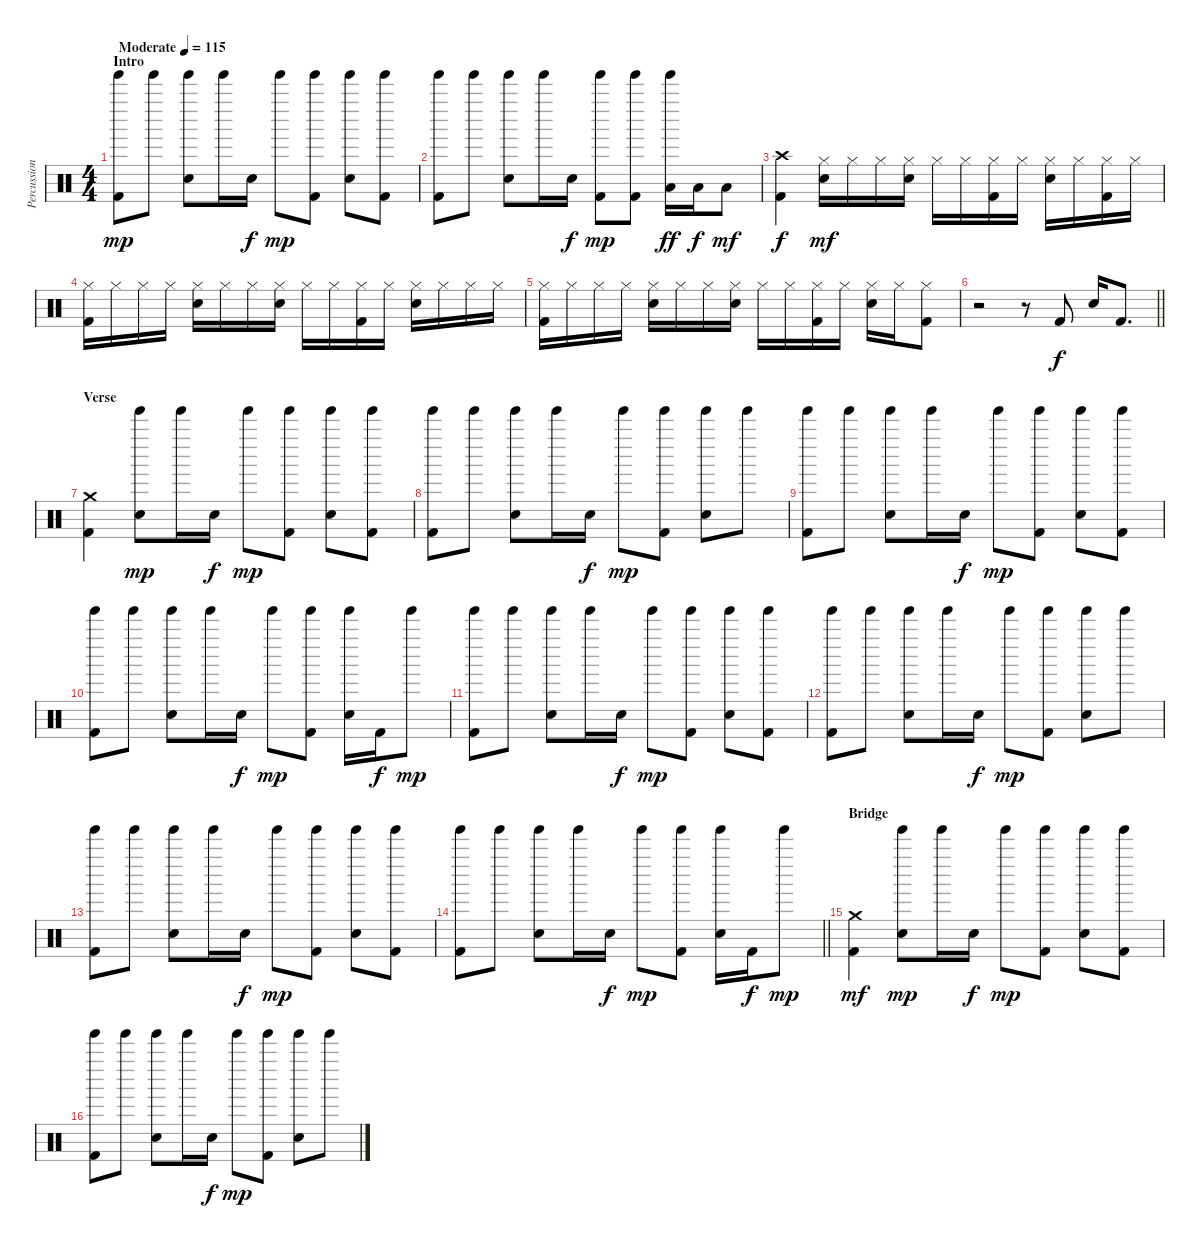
\track ("Percussion" "Percussion") {instrument percussion}
\staff {score}
\articulation defaults
\ts (4 4)
\section ("" "Intro")
\tempo (115 "Moderate")
\clef neutral
\ks c
("Tinkle Bell (hit)" "Kick (hit) 2").8{dy mp} "Tinkle Bell (hit)".8 ("Tinkle Bell (hit)" "Electric Snare (hit)").8 "Tinkle Bell (hit)".16 "Electric Snare (hit)".16{dy f} "Tinkle Bell (hit)".8{dy mp} ("Tinkle Bell (hit)" "Kick (hit) 2").8 ("Tinkle Bell (hit)" "Electric Snare (hit)").8 ("Tinkle Bell (hit)" "Kick (hit) 2").8 |
("Tinkle Bell (hit)" "Kick (hit) 2").8 "Tinkle Bell (hit)".8 ("Tinkle Bell (hit)" "Electric Snare (hit)").8 "Tinkle Bell (hit)".16 "Electric Snare (hit)".16{dy f} ("Tinkle Bell (hit)" "Kick (hit) 2").8{dy mp} ("Tinkle Bell (hit)" "Kick (hit) 2").8 ("Tinkle Bell (hit)" "Low Tom (hit)").16{dy ff} "Low Tom (hit)".16{dy f} "Low Tom (hit)".8{dy mf} |
("Crash high (hit)" "Kick (hit) 2").4{dy f} ("Hi-Hat (closed)" "Electric Snare (hit)").16{dy mf} "Hi-Hat (closed)".16 "Hi-Hat (closed)".16 ("Hi-Hat (closed)" "Electric Snare (hit)").16 "Hi-Hat (closed)".16 "Hi-Hat (closed)".16 ("Hi-Hat (closed)" "Kick (hit) 2").16 "Hi-Hat (closed)".16 ("Hi-Hat (closed)" "Electric Snare (hit)").16 "Hi-Hat (closed)".16 ("Hi-Hat (closed)" "Kick (hit) 2").16 "Hi-Hat (closed)".16 |
("Hi-Hat (closed)" "Kick (hit) 2").16 "Hi-Hat (closed)".16 "Hi-Hat (closed)".16 "Hi-Hat (closed)".16 ("Hi-Hat (closed)" "Electric Snare (hit)").16 "Hi-Hat (closed)".16 "Hi-Hat (closed)".16 ("Hi-Hat (closed)" "Electric Snare (hit)").16 "Hi-Hat (closed)".16 "Hi-Hat (closed)".16 ("Hi-Hat (closed)" "Kick (hit) 2").16 "Hi-Hat (closed)".16 ("Hi-Hat (closed)" "Electric Snare (hit)").16 "Hi-Hat (closed)".16 "Hi-Hat (closed)".16 "Hi-Hat (closed)".16 |
("Hi-Hat (closed)" "Kick (hit) 2").16 "Hi-Hat (closed)".16 "Hi-Hat (closed)".16 "Hi-Hat (closed)".16 ("Hi-Hat (closed)" "Electric Snare (hit)").16 "Hi-Hat (closed)".16 "Hi-Hat (closed)".16 ("Hi-Hat (closed)" "Electric Snare (hit)").16 "Hi-Hat (closed)".16 "Hi-Hat (closed)".16 ("Hi-Hat (closed)" "Kick (hit) 2").16 "Hi-Hat (closed)".16 ("Hi-Hat (closed)" "Electric Snare (hit)").16 "Hi-Hat (closed)".16 ("Hi-Hat (closed)" "Kick (hit) 2").8 |
\barLineRight lightlight
r.2 r.8 "Kick (hit) 2".8{dy f} "Electric Snare (hit)".16 "Kick (hit) 2".8{d} |
\section ("" "Verse")
("Crash medium (hit)" "Kick (hit) 2").4 ("Tinkle Bell (hit)" "Electric Snare (hit)").8{dy mp} "Tinkle Bell (hit)".16 "Electric Snare (hit)".16{dy f} "Tinkle Bell (hit)".8{dy mp} ("Tinkle Bell (hit)" "Kick (hit) 2").8 ("Tinkle Bell (hit)" "Electric Snare (hit)").8 ("Tinkle Bell (hit)" "Kick (hit) 2").8 |
("Tinkle Bell (hit)" "Kick (hit) 2").8 "Tinkle Bell (hit)".8 ("Tinkle Bell (hit)" "Electric Snare (hit)").8 "Tinkle Bell (hit)".16 "Electric Snare (hit)".16{dy f} "Tinkle Bell (hit)".8{dy mp} ("Tinkle Bell (hit)" "Kick (hit) 2").8 ("Tinkle Bell (hit)" "Electric Snare (hit)").8 "Tinkle Bell (hit)".8 |
("Tinkle Bell (hit)" "Kick (hit) 2").8 "Tinkle Bell (hit)".8 ("Tinkle Bell (hit)" "Electric Snare (hit)").8 "Tinkle Bell (hit)".16 "Electric Snare (hit)".16{dy f} "Tinkle Bell (hit)".8{dy mp} ("Tinkle Bell (hit)" "Kick (hit) 2").8 ("Tinkle Bell (hit)" "Electric Snare (hit)").8 ("Tinkle Bell (hit)" "Kick (hit) 2").8 |
("Tinkle Bell (hit)" "Kick (hit) 2").8 "Tinkle Bell (hit)".8 ("Tinkle Bell (hit)" "Electric Snare (hit)").8 "Tinkle Bell (hit)".16 "Electric Snare (hit)".16{dy f} "Tinkle Bell (hit)".8{dy mp} ("Tinkle Bell (hit)" "Kick (hit) 2").8 ("Tinkle Bell (hit)" "Electric Snare (hit)").16 "Kick (hit) 2".16{dy f} "Tinkle Bell (hit)".8{dy mp} |
("Tinkle Bell (hit)" "Kick (hit) 2").8 "Tinkle Bell (hit)".8 ("Tinkle Bell (hit)" "Electric Snare (hit)").8 "Tinkle Bell (hit)".16 "Electric Snare (hit)".16{dy f} "Tinkle Bell (hit)".8{dy mp} ("Tinkle Bell (hit)" "Kick (hit) 2").8 ("Tinkle Bell (hit)" "Electric Snare (hit)").8 ("Tinkle Bell (hit)" "Kick (hit) 2").8 |
("Tinkle Bell (hit)" "Kick (hit) 2").8 "Tinkle Bell (hit)".8 ("Tinkle Bell (hit)" "Electric Snare (hit)").8 "Tinkle Bell (hit)".16 "Electric Snare (hit)".16{dy f} "Tinkle Bell (hit)".8{dy mp} ("Tinkle Bell (hit)" "Kick (hit) 2").8 ("Tinkle Bell (hit)" "Electric Snare (hit)").8 "Tinkle Bell (hit)".8 |
("Tinkle Bell (hit)" "Kick (hit) 2").8 "Tinkle Bell (hit)".8 ("Tinkle Bell (hit)" "Electric Snare (hit)").8 "Tinkle Bell (hit)".16 "Electric Snare (hit)".16{dy f} "Tinkle Bell (hit)".8{dy mp} ("Tinkle Bell (hit)" "Kick (hit) 2").8 ("Tinkle Bell (hit)" "Electric Snare (hit)").8 ("Tinkle Bell (hit)" "Kick (hit) 2").8 |
\barLineRight lightlight
("Tinkle Bell (hit)" "Kick (hit) 2").8 "Tinkle Bell (hit)".8 ("Tinkle Bell (hit)" "Electric Snare (hit)").8 "Tinkle Bell (hit)".16 "Electric Snare (hit)".16{dy f} "Tinkle Bell (hit)".8{dy mp} ("Tinkle Bell (hit)" "Kick (hit) 2").8 ("Tinkle Bell (hit)" "Electric Snare (hit)").16 "Kick (hit) 2".16{dy f} "Tinkle Bell (hit)".8{dy mp} |
\section ("" "Bridge")
("Crash medium (hit)" "Kick (hit) 2").4{dy mf} ("Tinkle Bell (hit)" "Electric Snare (hit)").8{dy mp} "Tinkle Bell (hit)".16 "Electric Snare (hit)".16{dy f} "Tinkle Bell (hit)".8{dy mp} ("Tinkle Bell (hit)" "Kick (hit) 2").8 ("Tinkle Bell (hit)" "Electric Snare (hit)").8 ("Tinkle Bell (hit)" "Kick (hit) 2").8 |
("Tinkle Bell (hit)" "Kick (hit) 2").8 "Tinkle Bell (hit)".8 ("Tinkle Bell (hit)" "Electric Snare (hit)").8 "Tinkle Bell (hit)".16 "Electric Snare (hit)".16{dy f} "Tinkle Bell (hit)".8{dy mp} ("Tinkle Bell (hit)" "Kick (hit) 2").8 ("Tinkle Bell (hit)" "Electric Snare (hit)").8 "Tinkle Bell (hit)".8
